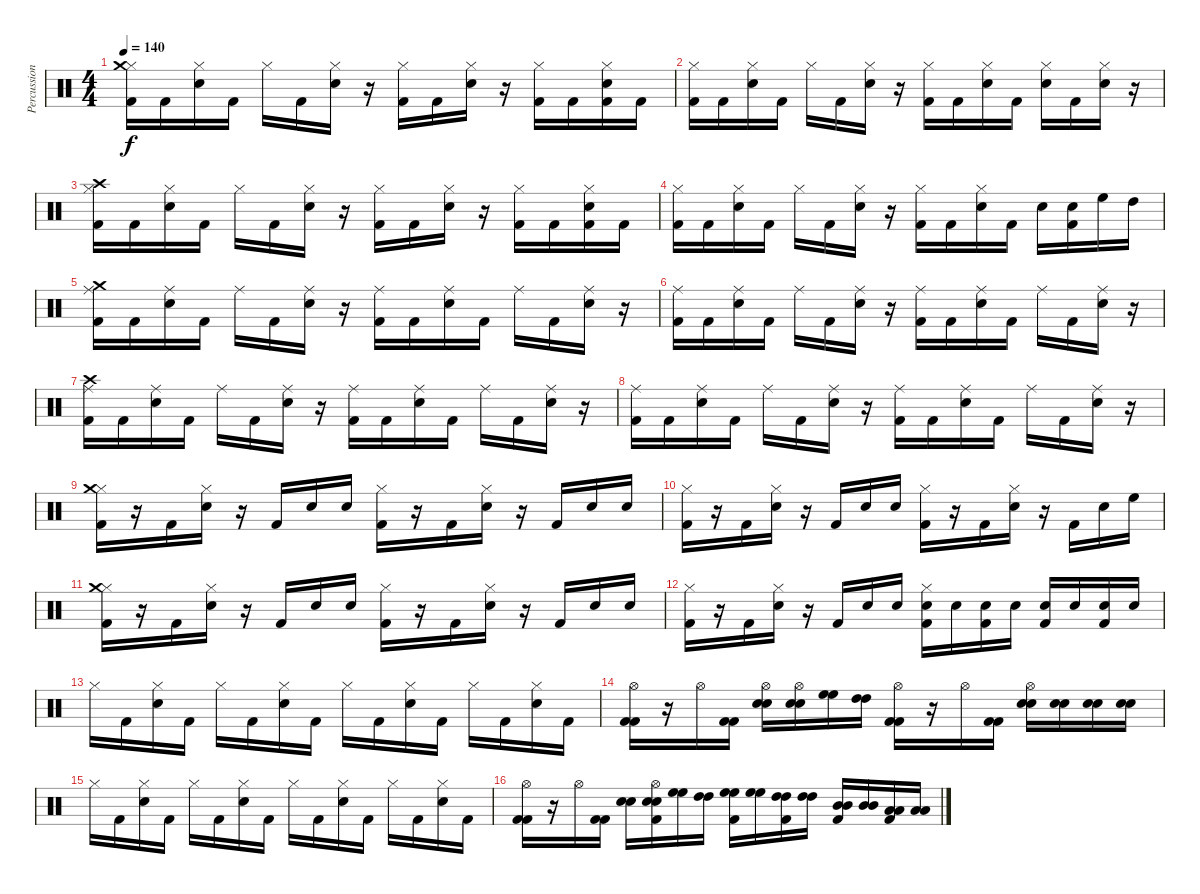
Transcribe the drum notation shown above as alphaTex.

\track ("Percussion" "Percussion") {instrument percussion}
\staff {score}
\articulation defaults
\ts (4 4)
\tempo 140
\clef neutral
\ks c
("Hi-Hat (closed)" "Crash medium (hit)" "Kick (hit) 2").16{dy f} "Kick (hit) 2".16 ("Hi-Hat (closed)" "Snare (hit) 2").16 "Kick (hit) 2".16 "Hi-Hat (closed)".16 "Kick (hit) 2".16 ("Hi-Hat (closed)" "Snare (hit) 2").16 r.16 ("Hi-Hat (closed)" "Kick (hit) 2").16 "Kick (hit) 2".16 ("Hi-Hat (closed)" "Snare (hit) 2").16 r.16 ("Hi-Hat (closed)" "Kick (hit) 2").16 "Kick (hit) 2".16 ("Hi-Hat (closed)" "Snare (hit) 2" "Kick (hit) 2").16 "Kick (hit) 2".16 |
("Hi-Hat (closed)" "Kick (hit) 2").16 "Kick (hit) 2".16 ("Hi-Hat (closed)" "Snare (hit) 2").16 "Kick (hit) 2".16 "Hi-Hat (closed)".16 "Kick (hit) 2".16 ("Hi-Hat (closed)" "Snare (hit) 2").16 r.16 ("Hi-Hat (closed)" "Kick (hit) 2").16 "Kick (hit) 2".16 ("Hi-Hat (closed)" "Snare (hit) 2").16 "Kick (hit) 2".16 ("Hi-Hat (closed)" "Snare (hit) 2").16 "Kick (hit) 2".16 ("Hi-Hat (closed)" "Snare (hit) 2").16 r.16 |
("Hi-Hat (closed)" "Crash high (hit)" "Kick (hit) 2").16 "Kick (hit) 2".16 ("Hi-Hat (closed)" "Snare (hit) 2").16 "Kick (hit) 2".16 "Hi-Hat (closed)".16 "Kick (hit) 2".16 ("Hi-Hat (closed)" "Snare (hit) 2").16 r.16 ("Hi-Hat (closed)" "Kick (hit) 2").16 "Kick (hit) 2".16 ("Hi-Hat (closed)" "Snare (hit) 2").16 r.16 ("Hi-Hat (closed)" "Kick (hit) 2").16 "Kick (hit) 2".16 ("Hi-Hat (closed)" "Snare (hit) 2" "Kick (hit) 2").16 "Kick (hit) 2".16 |
("Hi-Hat (closed)" "Kick (hit) 2").16 "Kick (hit) 2".16 ("Hi-Hat (closed)" "Snare (hit) 2").16 "Kick (hit) 2".16 "Hi-Hat (closed)".16 "Kick (hit) 2".16 ("Hi-Hat (closed)" "Snare (hit) 2").16 r.16 ("Hi-Hat (closed)" "Kick (hit) 2").16 "Kick (hit) 2".16 ("Hi-Hat (closed)" "Snare (hit) 2").16 "Kick (hit) 2".16 "Snare (hit) 2".16 ("Snare (hit) 2" "Kick (hit) 2").16 "High Floor Tom (hit)".16 "High Tom (hit)".16 |
("Ride (middle)" "Crash medium (hit)" "Kick (hit) 2").16 "Kick (hit) 2".16 ("Ride (middle)" "Snare (hit) 2").16 "Kick (hit) 2".16 "Ride (middle)".16 "Kick (hit) 2".16 ("Ride (middle)" "Snare (hit) 2").16 r.16 ("Ride (middle)" "Kick (hit) 2").16 "Kick (hit) 2".16 ("Ride (middle)" "Snare (hit) 2").16 "Kick (hit) 2".16 "Ride (middle)".16 "Kick (hit) 2".16 ("Ride (middle)" "Snare (hit) 2").16 r.16 |
("Ride (middle)" "Kick (hit) 2").16 "Kick (hit) 2".16 ("Ride (middle)" "Snare (hit) 2").16 "Kick (hit) 2".16 "Ride (middle)".16 "Kick (hit) 2".16 ("Ride (middle)" "Snare (hit) 2").16 r.16 ("Ride (middle)" "Kick (hit) 2").16 "Kick (hit) 2".16 ("Ride (middle)" "Snare (hit) 2").16 "Kick (hit) 2".16 "Ride (middle)".16 "Kick (hit) 2".16 ("Ride (middle)" "Snare (hit) 2").16 r.16 |
("Ride (middle)" "Crash high (hit)" "Kick (hit) 2").16 "Kick (hit) 2".16 ("Ride (middle)" "Snare (hit) 2").16 "Kick (hit) 2".16 "Ride (middle)".16 "Kick (hit) 2".16 ("Ride (middle)" "Snare (hit) 2").16 r.16 ("Ride (middle)" "Kick (hit) 2").16 "Kick (hit) 2".16 ("Ride (middle)" "Snare (hit) 2").16 "Kick (hit) 2".16 "Ride (middle)".16 "Kick (hit) 2".16 ("Ride (middle)" "Snare (hit) 2").16 r.16 |
("Ride (middle)" "Kick (hit) 2").16 "Kick (hit) 2".16 ("Ride (middle)" "Snare (hit) 2").16 "Kick (hit) 2".16 "Ride (middle)".16 "Kick (hit) 2".16 ("Ride (middle)" "Snare (hit) 2").16 r.16 ("Ride (middle)" "Kick (hit) 2").16 "Kick (hit) 2".16 ("Ride (middle)" "Snare (hit) 2").16 "Kick (hit) 2".16 "Ride (middle)".16 "Kick (hit) 2".16 ("Ride (middle)" "Snare (hit) 2").16 r.16 |
("Hi-Hat (closed)" "Crash medium (hit)" "Kick (hit) 2").16 r.16 "Kick (hit) 2".16 ("Hi-Hat (closed)" "Snare (hit) 2").16 r.16 "Kick (hit) 2".16 "Snare (hit) 2".16 "Snare (hit) 2".16 ("Hi-Hat (closed)" "Kick (hit) 2").16 r.16 "Kick (hit) 2".16 ("Hi-Hat (closed)" "Snare (hit) 2").16 r.16 "Kick (hit) 2".16 "Snare (hit) 2".16 "Snare (hit) 2".16 |
("Hi-Hat (closed)" "Kick (hit) 2").16 r.16 "Kick (hit) 2".16 ("Hi-Hat (closed)" "Snare (hit) 2").16 r.16 "Kick (hit) 2".16 "Snare (hit) 2".16 "Snare (hit) 2".16 ("Hi-Hat (closed)" "Kick (hit) 2").16 r.16 "Kick (hit) 2".16 ("Hi-Hat (closed)" "Snare (hit) 2").16 r.16 "Kick (hit) 2".16 "Snare (hit) 2".16 "High Floor Tom (hit)".16 |
("Hi-Hat (closed)" "Crash medium (hit)" "Kick (hit) 2").16 r.16 "Kick (hit) 2".16 ("Hi-Hat (closed)" "Snare (hit) 2").16 r.16 "Kick (hit) 2".16 "Snare (hit) 2".16 "Snare (hit) 2".16 ("Hi-Hat (closed)" "Kick (hit) 2").16 r.16 "Kick (hit) 2".16 ("Hi-Hat (closed)" "Snare (hit) 2").16 r.16 "Kick (hit) 2".16 "Snare (hit) 2".16 "Snare (hit) 2".16 |
("Hi-Hat (closed)" "Kick (hit) 2").16 r.16 "Kick (hit) 2".16 ("Hi-Hat (closed)" "Snare (hit) 2").16 r.16 "Kick (hit) 2".16 "Snare (hit) 2".16 "Snare (hit) 2".16 ("Hi-Hat (closed)" "Snare (hit) 2" "Kick (hit) 2").16 "Snare (hit) 2".16 ("Snare (hit) 2" "Kick (hit) 2").16 "Snare (hit) 2".16 ("Snare (hit) 2" "Kick (hit) 2").16 "Snare (hit) 2".16 ("Snare (hit) 2" "Kick (hit) 2").16 "Snare (hit) 2".16 |
"Hi-Hat (closed)".16 "Kick (hit) 2".16 ("Hi-Hat (closed)" "Snare (hit) 2").16 "Kick (hit) 2".16 "Hi-Hat (closed)".16 "Kick (hit) 2".16 ("Hi-Hat (closed)" "Snare (hit) 2").16 "Kick (hit) 2".16 "Hi-Hat (closed)".16 "Kick (hit) 2".16 ("Hi-Hat (closed)" "Snare (hit) 2").16 "Kick (hit) 2".16 "Hi-Hat (closed)".16 "Kick (hit) 2".16 ("Hi-Hat (closed)" "Snare (hit) 2").16 "Kick (hit) 2".16 |
("Hi-Hat (open)" "Kick (hit) 2" "Kick (hit) 2").16 r.16 "Hi-Hat (open)".16 ("Kick (hit) 2" "Kick (hit) 2").16 ("Hi-Hat (open)" "Snare (hit) 2" "Snare (hit) 2").16 ("Snare (hit) 2" "Snare (hit) 2" "Hi-Hat (open)").16 ("High Floor Tom (hit)" "High Floor Tom (hit)").16 ("High Tom (hit)" "High Tom (hit)").16 ("Hi-Hat (open)" "Kick (hit) 2" "Kick (hit) 2").16 r.16 "Hi-Hat (open)".16 ("Kick (hit) 2" "Kick (hit) 2").16 ("Hi-Hat (open)" "Snare (hit) 2" "Snare (hit) 2").16 ("Snare (hit) 2" "Snare (hit) 2").16 ("Snare (hit) 2" "Snare (hit) 2").16 ("Snare (hit) 2" "Snare (hit) 2").16 |
"Hi-Hat (closed)".16 "Kick (hit) 2".16 ("Hi-Hat (closed)" "Snare (hit) 2").16 "Kick (hit) 2".16 "Hi-Hat (closed)".16 "Kick (hit) 2".16 ("Hi-Hat (closed)" "Snare (hit) 2").16 "Kick (hit) 2".16 "Hi-Hat (closed)".16 "Kick (hit) 2".16 ("Hi-Hat (closed)" "Snare (hit) 2").16 "Kick (hit) 2".16 "Hi-Hat (closed)".16 "Kick (hit) 2".16 ("Hi-Hat (closed)" "Snare (hit) 2").16 "Kick (hit) 2".16 |
("Hi-Hat (open)" "Kick (hit) 2" "Kick (hit) 2").16 r.16 "Hi-Hat (open)".16 ("Kick (hit) 2" "Kick (hit) 2").16 ("Snare (hit) 2" "Snare (hit) 2").16 ("Hi-Hat (open)" "Snare (hit) 2" "Snare (hit) 2" "Kick (hit) 2").16 ("High Floor Tom (hit)" "High Floor Tom (hit)").16 ("High Tom (hit)" "High Tom (hit)").16 ("High Floor Tom (hit)" "High Floor Tom (hit)" "Kick (hit) 2").16 ("High Floor Tom (hit)" "High Floor Tom (hit)").16 ("High Tom (hit)" "High Tom (hit)" "Kick (hit) 2").16 ("High Tom (hit)" "High Tom (hit)").16 ("Mid Tom (hit)" "Mid Tom (hit)" "Kick (hit) 2").16 ("Mid Tom (hit)" "Mid Tom (hit)").16 ("Low Tom (hit)" "Low Tom (hit)" "Kick (hit) 2").16 ("Low Tom (hit)" "Low Tom (hit)").16
